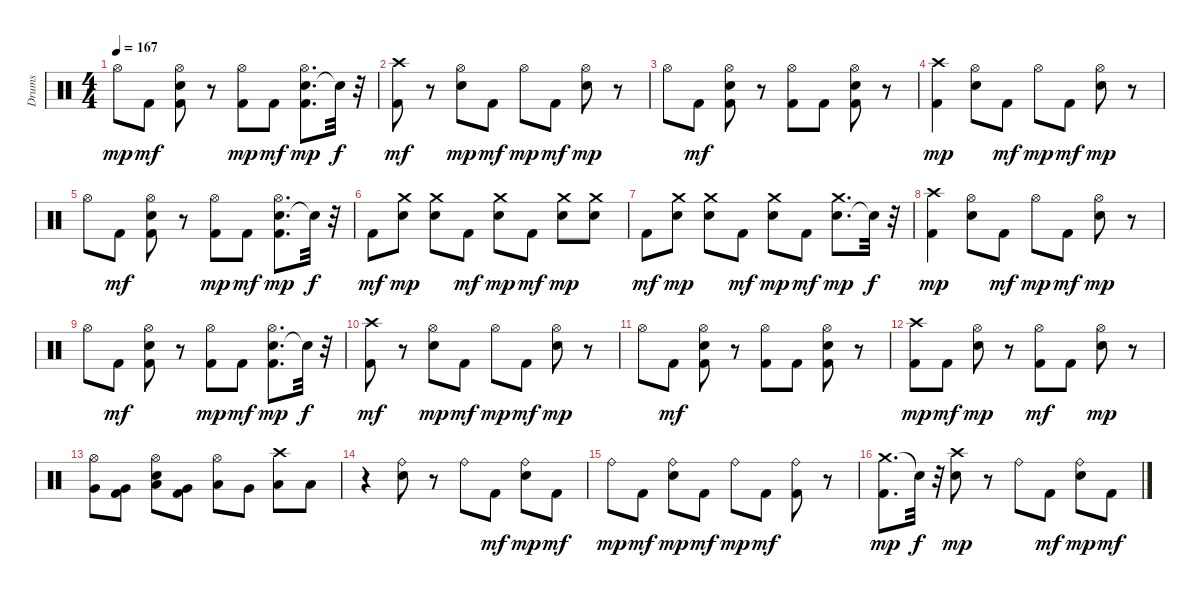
\track ("Drums" "Drums") {instrument percussion}
\staff {score}
\articulation defaults
\ts (4 4)
\tempo 167
\clef neutral
\ks c "Hi-Hat (open)".8{dy mp} "Kick (hit) 2".8{dy mf}
("Electric Snare (hit)" "Hi-Hat (open)" "Kick (hit) 2").8 r.8 ("Hi-Hat (open)" "Kick (hit) 2").8{dy mp} "Kick (hit) 2".8{dy mf} ("Electric Snare (hit)" "Hi-Hat (open)" "Kick (hit) 2").8{d dy mp} "Snare (hit)"{t}.32{dy f} r.32 |
("Crash high (hit)" "Kick (hit) 2").8{dy mf} r.8 ("Electric Snare (hit)" "Hi-Hat (open)").8{dy mp} "Kick (hit) 2".8{dy mf} "Hi-Hat (open)".8{dy mp} "Kick (hit) 2".8{dy mf} ("Electric Snare (hit)" "Hi-Hat (open)").8{dy mp} r.8 |
"Hi-Hat (open)".8 "Kick (hit) 2".8{dy mf} ("Electric Snare (hit)" "Hi-Hat (open)" "Kick (hit) 2").8 r.8 ("Hi-Hat (open)" "Kick (hit) 2").8 "Kick (hit) 2".8 ("Electric Snare (hit)" "Hi-Hat (open)" "Kick (hit) 2").8 r.8 |
("Kick (hit) 2" "Crash high (hit)").4{dy mp} ("Electric Snare (hit)" "Hi-Hat (open)").8 "Kick (hit) 2".8{dy mf} "Hi-Hat (open)".8{dy mp} "Kick (hit) 2".8{dy mf} ("Electric Snare (hit)" "Hi-Hat (open)").8{dy mp} r.8 |
"Hi-Hat (open)".8 "Kick (hit) 2".8{dy mf} ("Electric Snare (hit)" "Hi-Hat (open)" "Kick (hit) 2").8 r.8 ("Hi-Hat (open)" "Kick (hit) 2").8{dy mp} "Kick (hit) 2".8{dy mf} ("Electric Snare (hit)" "Hi-Hat (open)" "Kick (hit) 2").8{d dy mp} "Snare (hit)"{t}.32{dy f} r.32 |
"Kick (hit) 2".8{dy mf} ("Electric Snare (hit)" "Crash medium (hit)").8{dy mp} ("Crash medium (hit)" "Electric Snare (hit)").8 "Kick (hit) 2".8{dy mf} ("Electric Snare (hit)" "Crash medium (hit)").8{dy mp} "Kick (hit) 2".8{dy mf} ("Electric Snare (hit)" "Crash medium (hit)").8{dy mp} ("Electric Snare (hit)" "Crash medium (hit)").8 |
"Kick (hit) 2".8{dy mf} ("Electric Snare (hit)" "Crash medium (hit)").8{dy mp} ("Electric Snare (hit)" "Crash medium (hit)").8 "Kick (hit) 2".8{dy mf} ("Electric Snare (hit)" "Crash medium (hit)").8{dy mp} "Kick (hit) 2".8{dy mf} ("Electric Snare (hit)" "Crash medium (hit)").8{d dy mp} "Snare (hit)"{t}.32{dy f} r.32 |
("Kick (hit) 2" "Crash high (hit)").4{dy mp} ("Electric Snare (hit)" "Hi-Hat (open)").8 "Kick (hit) 2".8{dy mf} "Hi-Hat (open)".8{dy mp} "Kick (hit) 2".8{dy mf} ("Electric Snare (hit)" "Hi-Hat (open)").8{dy mp} r.8 |
"Hi-Hat (open)".8 "Kick (hit) 2".8{dy mf} ("Electric Snare (hit)" "Hi-Hat (open)" "Kick (hit) 2").8 r.8 ("Hi-Hat (open)" "Kick (hit) 2").8{dy mp} "Kick (hit) 2".8{dy mf} ("Electric Snare (hit)" "Hi-Hat (open)" "Kick (hit) 2").8{d dy mp} "Snare (hit)"{t}.32{dy f} r.32 |
("Crash high (hit)" "Kick (hit) 2").8{dy mf} r.8 ("Electric Snare (hit)" "Hi-Hat (open)").8{dy mp} "Kick (hit) 2".8{dy mf} "Hi-Hat (open)".8{dy mp} "Kick (hit) 2".8{dy mf} ("Electric Snare (hit)" "Hi-Hat (open)").8{dy mp} r.8 |
"Hi-Hat (open)".8 "Kick (hit) 2".8{dy mf} ("Electric Snare (hit)" "Hi-Hat (open)" "Kick (hit) 2").8 r.8 ("Hi-Hat (open)" "Kick (hit) 2").8 "Kick (hit) 2".8 ("Electric Snare (hit)" "Hi-Hat (open)" "Kick (hit) 2").8 r.8 |
("Kick (hit) 2" "Crash high (hit)").8{dy mp} "Kick (hit) 2".8{dy mf} ("Electric Snare (hit)" "Hi-Hat (open)").8{dy mp} r.8 ("Hi-Hat (open)" "Kick (hit) 2").8{dy mf} "Kick (hit) 2".8 ("Electric Snare (hit)" "Hi-Hat (open)").8{dy mp} r.8 |
("Hi-Hat (open)" "Very Low Tom (hit)").8 ("Kick (hit) 2" "Very Low Tom (hit)").8 ("Electric Snare (hit)" "Low Floor Tom (hit)" "Hi-Hat (open)").8 ("Kick (hit) 2" "Very Low Tom (hit)").8 ("Hi-Hat (open)" "Low Floor Tom (hit)").8 "Very Low Tom (hit)".8 ("Low Floor Tom (hit)" "Crash high (hit)").8 "Low Floor Tom (hit)".8 |
r.4 ("Electric Snare (hit)" "Ride (bell)").8 r.8 "Ride (bell)".8 "Kick (hit) 2".8{dy mf} ("Electric Snare (hit)" "Ride (bell)").8{dy mp} "Kick (hit) 2".8{dy mf} |
"Ride (bell)".8{dy mp} "Kick (hit) 2".8{dy mf} ("Electric Snare (hit)" "Ride (bell)").8{dy mp} "Kick (hit) 2".8{dy mf} "Ride (bell)".8{dy mp} "Kick (hit) 2".8{dy mf} ("Ride (bell)" "Kick (hit) 2").8 r.8 |
("Crash medium (hit)" "Kick (hit) 2").8{d dy mp} "Snare (hit)"{t}.32{dy f} r.32 ("Electric Snare (hit)" "Crash high (hit)").8{dy mp} r.8 "Ride (bell)".8 "Kick (hit) 2".8{dy mf} ("Electric Snare (hit)" "Ride (bell)").8{dy mp} "Kick (hit) 2".8{dy mf}
